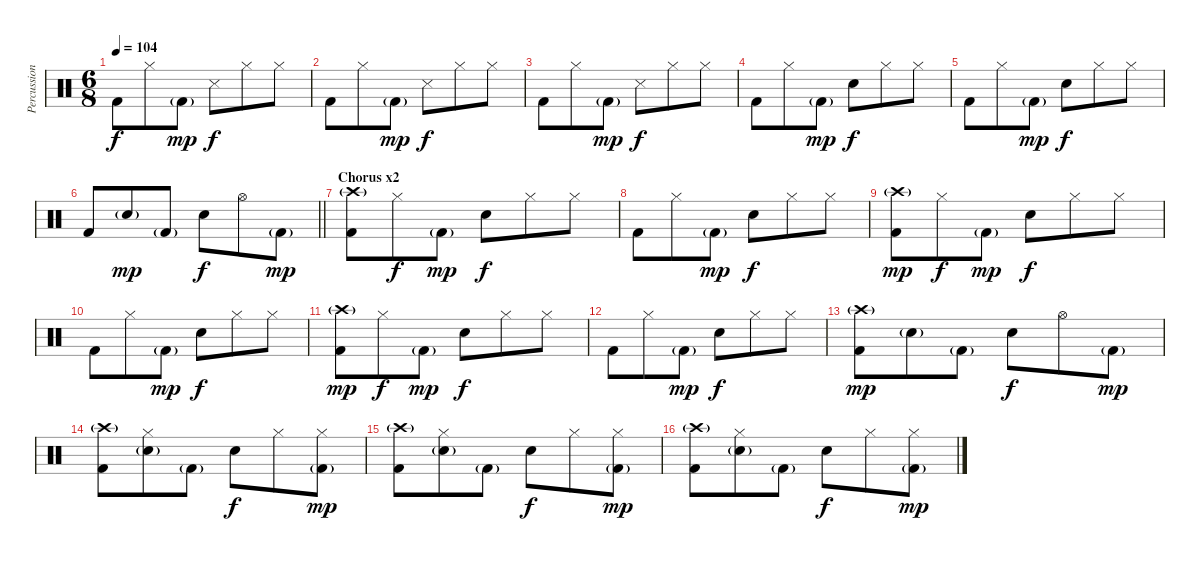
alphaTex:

\track ("Percussion" "Percussion") {instrument percussion}
\staff {score}
\articulation defaults
\ts (6 8)
\tempo 104
\clef neutral
\ks c "Kick (hit) 2".8{dy f} "Hi-Hat (closed)".8 "Kick (hit) 2"{g}.8{dy mp} "Snare (side stick) 3".8{dy f} "Hi-Hat (closed)".8 "Hi-Hat (closed)".8
|
"Kick (hit) 2".8 "Hi-Hat (closed)".8 "Kick (hit) 2"{g}.8{dy mp} "Snare (side stick) 3".8{dy f} "Hi-Hat (closed)".8 "Hi-Hat (closed)".8 |
"Kick (hit) 2".8 "Hi-Hat (closed)".8 "Kick (hit) 2"{g}.8{dy mp} "Snare (side stick) 3".8{dy f} "Hi-Hat (closed)".8 "Hi-Hat (closed)".8 |
"Kick (hit) 2".8 "Hi-Hat (closed)".8 "Kick (hit) 2"{g}.8{dy mp} "Snare (hit) 2".8{dy f} "Hi-Hat (closed)".8 "Hi-Hat (closed)".8 |
"Kick (hit) 2".8 "Hi-Hat (closed)".8 "Kick (hit) 2"{g}.8{dy mp} "Snare (hit) 2".8{dy f} "Hi-Hat (closed)".8 "Hi-Hat (closed)".8 |
\barLineRight lightlight "Kick (hit) 2".8 "Snare (hit) 2"{g}.8{dy mp} "Kick (hit) 2"{g}.8 "Snare (hit) 2".8{dy f} "Hi-Hat (open)".8 "Kick (hit) 2"{g}.8{dy mp}
|
\section ("" "Chorus x2")
("Crash high (hit)"{g} "Kick (hit) 2").8 "Hi-Hat (closed)".8{dy f} "Kick (hit) 2"{g}.8{dy mp} "Snare (hit) 2".8{dy f} "Hi-Hat (closed)".8 "Hi-Hat (closed)".8 |
"Kick (hit) 2".8 "Hi-Hat (closed)".8 "Kick (hit) 2"{g}.8{dy mp} "Snare (hit) 2".8{dy f} "Hi-Hat (closed)".8 "Hi-Hat (closed)".8 |
("Crash high (hit)"{g} "Kick (hit) 2").8{dy mp} "Hi-Hat (closed)".8{dy f} "Kick (hit) 2"{g}.8{dy mp} "Snare (hit) 2".8{dy f} "Hi-Hat (closed)".8 "Hi-Hat (closed)".8 |
"Kick (hit) 2".8 "Hi-Hat (closed)".8 "Kick (hit) 2"{g}.8{dy mp} "Snare (hit) 2".8{dy f} "Hi-Hat (closed)".8 "Hi-Hat (closed)".8 |
("Crash high (hit)"{g} "Kick (hit) 2").8{dy mp} "Hi-Hat (closed)".8{dy f} "Kick (hit) 2"{g}.8{dy mp} "Snare (hit) 2".8{dy f} "Hi-Hat (closed)".8 "Hi-Hat (closed)".8 |
"Kick (hit) 2".8 "Hi-Hat (closed)".8 "Kick (hit) 2"{g}.8{dy mp} "Snare (hit) 2".8{dy f} "Hi-Hat (closed)".8 "Hi-Hat (closed)".8 |
("Crash high (hit)"{g} "Kick (hit) 2").8{dy mp} "Snare (hit) 2"{g}.8 "Kick (hit) 2"{g}.8 "Snare (hit) 2".8{dy f} "Hi-Hat (open)".8 "Kick (hit) 2"{g}.8{dy mp} |
("Crash high (hit)"{g} "Kick (hit) 2").8 ("Hi-Hat (closed)" "Snare (hit) 2"{g}).8 "Kick (hit) 2"{g}.8 "Snare (hit) 2".8{dy f} "Hi-Hat (closed)".8 ("Hi-Hat (closed)" "Kick (hit) 2"{g}).8{dy mp} |
("Crash high (hit)"{g} "Kick (hit) 2").8 ("Hi-Hat (closed)" "Snare (hit) 2"{g}).8 "Kick (hit) 2"{g}.8 "Snare (hit) 2".8{dy f} "Hi-Hat (closed)".8 ("Hi-Hat (closed)" "Kick (hit) 2"{g}).8{dy mp} |
("Crash high (hit)"{g} "Kick (hit) 2").8 ("Hi-Hat (closed)" "Snare (hit) 2"{g}).8 "Kick (hit) 2"{g}.8 "Snare (hit) 2".8{dy f} "Hi-Hat (closed)".8 ("Hi-Hat (closed)" "Kick (hit) 2"{g}).8{dy mp}
